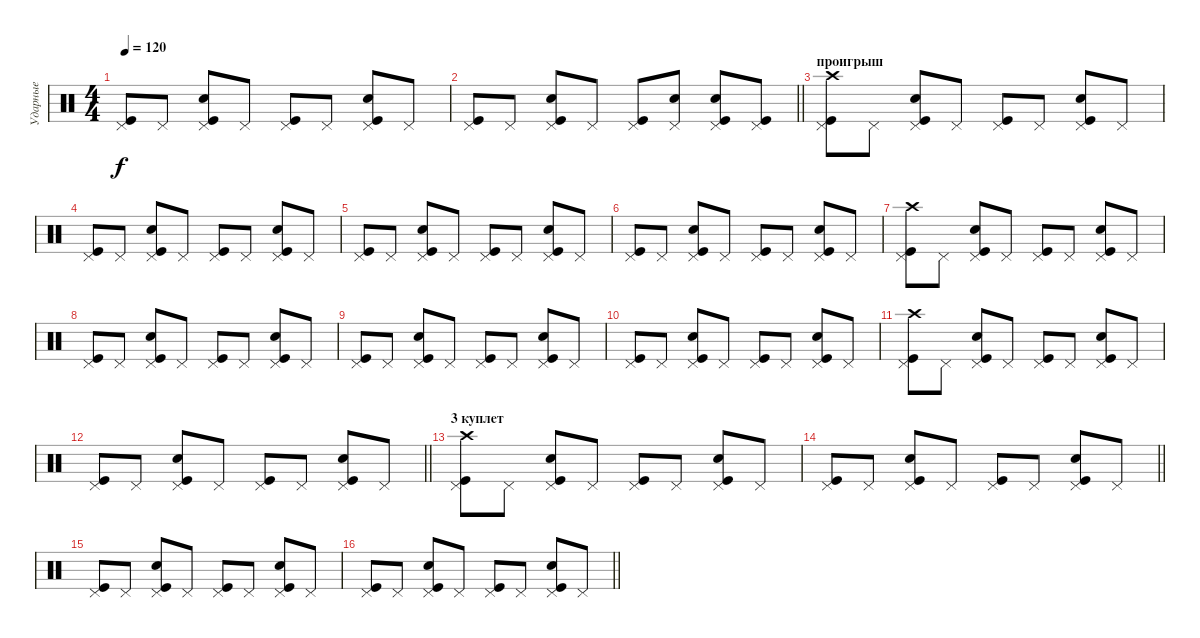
\track ("Ударные" "Ударные") {instrument percussion}
\staff {score}
\articulation defaults
\ts (4 4)
\tempo 120
\clef neutral
\ks c
("Pedal Hi-Hat (hit)" "Kick (hit)").8{dy f} "Pedal Hi-Hat (hit)".8 ("Pedal Hi-Hat (hit)" "Kick (hit)" "Snare (hit) 2").8 "Pedal Hi-Hat (hit)".8 ("Pedal Hi-Hat (hit)" "Kick (hit)").8 "Pedal Hi-Hat (hit)".8 ("Pedal Hi-Hat (hit)" "Kick (hit)" "Snare (hit) 2").8 "Pedal Hi-Hat (hit)".8 |
\barLineRight lightlight
("Pedal Hi-Hat (hit)" "Kick (hit)").8 "Pedal Hi-Hat (hit)".8 ("Pedal Hi-Hat (hit)" "Kick (hit)" "Snare (hit) 2").8 "Pedal Hi-Hat (hit)".8 ("Pedal Hi-Hat (hit)" "Kick (hit)").8 ("Pedal Hi-Hat (hit)" "Snare (hit) 2").8 ("Pedal Hi-Hat (hit)" "Kick (hit)" "Snare (hit) 2").8 ("Pedal Hi-Hat (hit)" "Kick (hit)").8 |
\section ("" "проигрыш")
("Pedal Hi-Hat (hit)" "Kick (hit)" "Crash high (hit)").8 "Pedal Hi-Hat (hit)".8 ("Pedal Hi-Hat (hit)" "Kick (hit)" "Snare (hit) 2").8 "Pedal Hi-Hat (hit)".8 ("Pedal Hi-Hat (hit)" "Kick (hit)").8 "Pedal Hi-Hat (hit)".8 ("Pedal Hi-Hat (hit)" "Kick (hit)" "Snare (hit) 2").8 "Pedal Hi-Hat (hit)".8 |
("Pedal Hi-Hat (hit)" "Kick (hit)").8 "Pedal Hi-Hat (hit)".8 ("Pedal Hi-Hat (hit)" "Kick (hit)" "Snare (hit) 2").8 "Pedal Hi-Hat (hit)".8 ("Pedal Hi-Hat (hit)" "Kick (hit)").8 "Pedal Hi-Hat (hit)".8 ("Pedal Hi-Hat (hit)" "Kick (hit)" "Snare (hit) 2").8 "Pedal Hi-Hat (hit)".8 |
("Pedal Hi-Hat (hit)" "Kick (hit)").8 "Pedal Hi-Hat (hit)".8 ("Pedal Hi-Hat (hit)" "Kick (hit)" "Snare (hit) 2").8 "Pedal Hi-Hat (hit)".8 ("Pedal Hi-Hat (hit)" "Kick (hit)").8 "Pedal Hi-Hat (hit)".8 ("Pedal Hi-Hat (hit)" "Kick (hit)" "Snare (hit) 2").8 "Pedal Hi-Hat (hit)".8 |
("Pedal Hi-Hat (hit)" "Kick (hit)").8 "Pedal Hi-Hat (hit)".8 ("Pedal Hi-Hat (hit)" "Kick (hit)" "Snare (hit) 2").8 "Pedal Hi-Hat (hit)".8 ("Pedal Hi-Hat (hit)" "Kick (hit)").8 "Pedal Hi-Hat (hit)".8 ("Pedal Hi-Hat (hit)" "Kick (hit)" "Snare (hit) 2").8 "Pedal Hi-Hat (hit)".8 |
("Pedal Hi-Hat (hit)" "Kick (hit)" "Crash high (hit)").8 "Pedal Hi-Hat (hit)".8 ("Pedal Hi-Hat (hit)" "Kick (hit)" "Snare (hit) 2").8 "Pedal Hi-Hat (hit)".8 ("Pedal Hi-Hat (hit)" "Kick (hit)").8 "Pedal Hi-Hat (hit)".8 ("Pedal Hi-Hat (hit)" "Kick (hit)" "Snare (hit) 2").8 "Pedal Hi-Hat (hit)".8 |
("Pedal Hi-Hat (hit)" "Kick (hit)").8 "Pedal Hi-Hat (hit)".8 ("Pedal Hi-Hat (hit)" "Kick (hit)" "Snare (hit) 2").8 "Pedal Hi-Hat (hit)".8 ("Pedal Hi-Hat (hit)" "Kick (hit)").8 "Pedal Hi-Hat (hit)".8 ("Pedal Hi-Hat (hit)" "Kick (hit)" "Snare (hit) 2").8 "Pedal Hi-Hat (hit)".8 |
("Pedal Hi-Hat (hit)" "Kick (hit)").8 "Pedal Hi-Hat (hit)".8 ("Pedal Hi-Hat (hit)" "Kick (hit)" "Snare (hit) 2").8 "Pedal Hi-Hat (hit)".8 ("Pedal Hi-Hat (hit)" "Kick (hit)").8 "Pedal Hi-Hat (hit)".8 ("Pedal Hi-Hat (hit)" "Kick (hit)" "Snare (hit) 2").8 "Pedal Hi-Hat (hit)".8 |
("Pedal Hi-Hat (hit)" "Kick (hit)").8 "Pedal Hi-Hat (hit)".8 ("Pedal Hi-Hat (hit)" "Kick (hit)" "Snare (hit) 2").8 "Pedal Hi-Hat (hit)".8 ("Pedal Hi-Hat (hit)" "Kick (hit)").8 "Pedal Hi-Hat (hit)".8 ("Pedal Hi-Hat (hit)" "Kick (hit)" "Snare (hit) 2").8 "Pedal Hi-Hat (hit)".8 |
("Pedal Hi-Hat (hit)" "Kick (hit)" "Crash high (hit)").8 "Pedal Hi-Hat (hit)".8 ("Pedal Hi-Hat (hit)" "Kick (hit)" "Snare (hit) 2").8 "Pedal Hi-Hat (hit)".8 ("Pedal Hi-Hat (hit)" "Kick (hit)").8 "Pedal Hi-Hat (hit)".8 ("Pedal Hi-Hat (hit)" "Kick (hit)" "Snare (hit) 2").8 "Pedal Hi-Hat (hit)".8 |
\barLineRight lightlight
("Pedal Hi-Hat (hit)" "Kick (hit)").8 "Pedal Hi-Hat (hit)".8 ("Pedal Hi-Hat (hit)" "Kick (hit)" "Snare (hit) 2").8 "Pedal Hi-Hat (hit)".8 ("Pedal Hi-Hat (hit)" "Kick (hit)").8 "Pedal Hi-Hat (hit)".8 ("Pedal Hi-Hat (hit)" "Kick (hit)" "Snare (hit) 2").8 "Pedal Hi-Hat (hit)".8 |
\section ("" "3 куплет")
("Pedal Hi-Hat (hit)" "Kick (hit)" "Crash high (hit)").8 "Pedal Hi-Hat (hit)".8 ("Pedal Hi-Hat (hit)" "Kick (hit)" "Snare (hit) 2").8 "Pedal Hi-Hat (hit)".8 ("Pedal Hi-Hat (hit)" "Kick (hit)").8 "Pedal Hi-Hat (hit)".8 ("Pedal Hi-Hat (hit)" "Kick (hit)" "Snare (hit) 2").8 "Pedal Hi-Hat (hit)".8 |
\barLineRight lightlight
("Pedal Hi-Hat (hit)" "Kick (hit)").8 "Pedal Hi-Hat (hit)".8 ("Pedal Hi-Hat (hit)" "Kick (hit)" "Snare (hit) 2").8 "Pedal Hi-Hat (hit)".8 ("Pedal Hi-Hat (hit)" "Kick (hit)").8 "Pedal Hi-Hat (hit)".8 ("Pedal Hi-Hat (hit)" "Kick (hit)" "Snare (hit) 2").8 "Pedal Hi-Hat (hit)".8 |
("Pedal Hi-Hat (hit)" "Kick (hit)").8 "Pedal Hi-Hat (hit)".8 ("Pedal Hi-Hat (hit)" "Kick (hit)" "Snare (hit) 2").8 "Pedal Hi-Hat (hit)".8 ("Pedal Hi-Hat (hit)" "Kick (hit)").8 "Pedal Hi-Hat (hit)".8 ("Pedal Hi-Hat (hit)" "Kick (hit)" "Snare (hit) 2").8 "Pedal Hi-Hat (hit)".8 |
\barLineRight lightlight
("Pedal Hi-Hat (hit)" "Kick (hit)").8 "Pedal Hi-Hat (hit)".8 ("Pedal Hi-Hat (hit)" "Kick (hit)" "Snare (hit) 2").8 "Pedal Hi-Hat (hit)".8 ("Pedal Hi-Hat (hit)" "Kick (hit)").8 "Pedal Hi-Hat (hit)".8 ("Pedal Hi-Hat (hit)" "Kick (hit)" "Snare (hit) 2").8 "Pedal Hi-Hat (hit)".8
